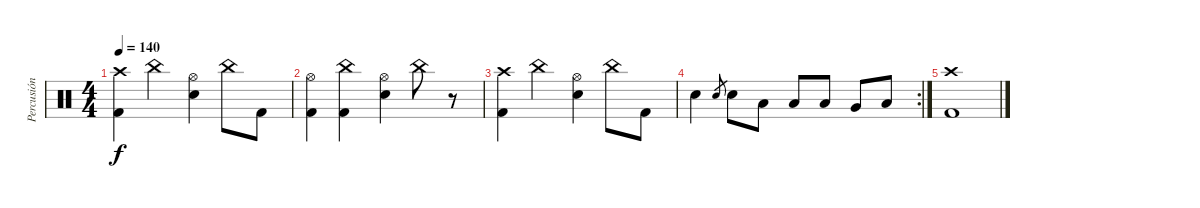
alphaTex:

\track ("Percusión" "Percusión") {instrument percussion}
\staff {score}
\articulation defaults
\ts (4 4)
\tempo 140
\clef neutral
\ks c
("Crash high (hit)" "Kick (hit) 2").4{dy f} "China (hit)".4 ("Hi-Hat (open)" "Electric Snare (hit)").4 "China (hit)".8 "Kick (hit) 2".8 |
("Hi-Hat (open)" "Kick (hit) 2").4 ("China (hit)" "Kick (hit) 2").4 ("Hi-Hat (open)" "Electric Snare (hit)").4 "China (hit)".8 r.8 |
("Crash high (hit)" "Kick (hit) 2").4 "China (hit)".4 ("Hi-Hat (open)" "Electric Snare (hit)").4 "China (hit)".8 "Kick (hit) 2".8 |
\rc 2 "Electric Snare (hit)".4 "Electric Snare (hit)".8{gr} "Electric Snare (hit)".8 "Low Tom (hit)".8 "Low Tom (hit)".8 "Low Tom (hit)".8 "Very Low Tom (hit)".8 "Low Floor Tom (hit)".8
|
("Crash high (hit)" "Kick (hit) 2").1
